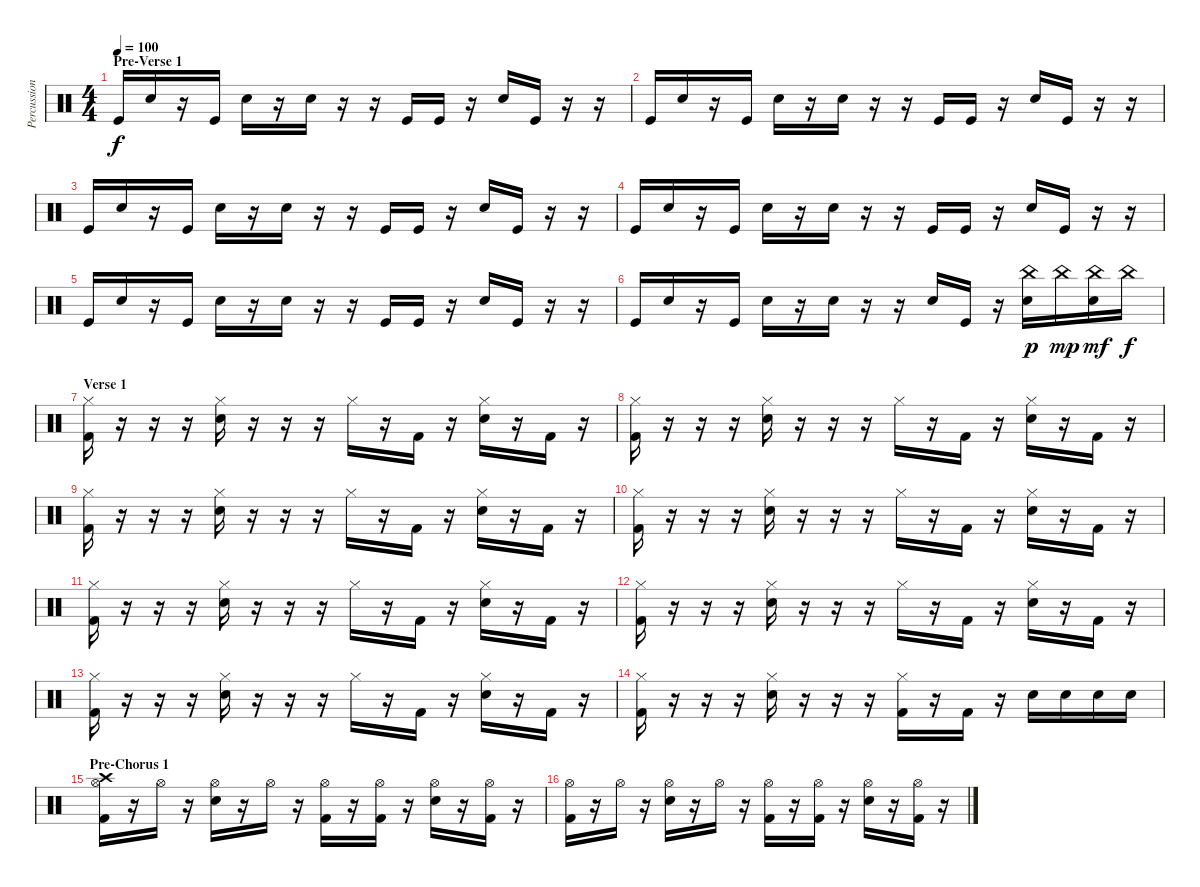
\track ("Percussion" "Percussion") {instrument percussion}
\staff {score}
\articulation defaults
\ts (4 4)
\section ("" "Pre-Verse 1")
\tempo 100
\clef neutral
\ks c "Kick (hit)".16{dy f} "Electric Snare (hit)".16
r.16 "Kick (hit)".16 "Electric Snare (hit)".16 r.16 "Electric Snare (hit)".16 r.16 r.16 "Kick (hit)".16 "Kick (hit)".16 r.16 "Electric Snare (hit)".16 "Kick (hit)".16 r.16 r.16 |
"Kick (hit)".16 "Electric Snare (hit)".16 r.16 "Kick (hit)".16 "Electric Snare (hit)".16 r.16 "Electric Snare (hit)".16 r.16 r.16 "Kick (hit)".16 "Kick (hit)".16 r.16 "Electric Snare (hit)".16 "Kick (hit)".16 r.16 r.16 |
"Kick (hit)".16 "Electric Snare (hit)".16 r.16 "Kick (hit)".16 "Electric Snare (hit)".16 r.16 "Electric Snare (hit)".16 r.16 r.16 "Kick (hit)".16 "Kick (hit)".16 r.16 "Electric Snare (hit)".16 "Kick (hit)".16 r.16 r.16 |
"Kick (hit)".16 "Electric Snare (hit)".16 r.16 "Kick (hit)".16 "Electric Snare (hit)".16 r.16 "Electric Snare (hit)".16 r.16 r.16 "Kick (hit)".16 "Kick (hit)".16 r.16 "Electric Snare (hit)".16 "Kick (hit)".16 r.16 r.16 |
"Kick (hit)".16 "Electric Snare (hit)".16 r.16 "Kick (hit)".16 "Electric Snare (hit)".16 r.16 "Electric Snare (hit)".16 r.16 r.16 "Kick (hit)".16 "Kick (hit)".16 r.16 "Electric Snare (hit)".16 "Kick (hit)".16 r.16 r.16 |
"Kick (hit)".16 "Electric Snare (hit)".16 r.16 "Kick (hit)".16 "Electric Snare (hit)".16 r.16 "Electric Snare (hit)".16 r.16 r.16 "Electric Snare (hit)".16 "Kick (hit)".16 r.16 ("Electric Snare (hit)" "China (hit)").16{dy p} "China (hit)".16{dy mp} ("Electric Snare (hit)" "China (hit)").16{dy mf} "China (hit)".16{dy f} |
\section ("" "Verse 1")
("Kick (hit) 2" "Hi-Hat (closed)").16 r.16 r.16 r.16 ("Snare (hit) 2" "Hi-Hat (closed)").16 r.16 r.16 r.16 "Hi-Hat (closed)".16 r.16 "Kick (hit) 2".16 r.16 ("Snare (hit) 2" "Hi-Hat (closed)").16 r.16 "Kick (hit) 2".16 r.16 |
("Kick (hit) 2" "Hi-Hat (closed)").16 r.16 r.16 r.16 ("Snare (hit) 2" "Hi-Hat (closed)").16 r.16 r.16 r.16 "Hi-Hat (closed)".16 r.16 "Kick (hit) 2".16 r.16 ("Snare (hit) 2" "Hi-Hat (closed)").16 r.16 "Kick (hit) 2".16 r.16 |
("Kick (hit) 2" "Hi-Hat (closed)").16 r.16 r.16 r.16 ("Snare (hit) 2" "Hi-Hat (closed)").16 r.16 r.16 r.16 "Hi-Hat (closed)".16 r.16 "Kick (hit) 2".16 r.16 ("Snare (hit) 2" "Hi-Hat (closed)").16 r.16 "Kick (hit) 2".16 r.16 |
("Kick (hit) 2" "Hi-Hat (closed)").16 r.16 r.16 r.16 ("Snare (hit) 2" "Hi-Hat (closed)").16 r.16 r.16 r.16 "Hi-Hat (closed)".16 r.16 "Kick (hit) 2".16 r.16 ("Snare (hit) 2" "Hi-Hat (closed)").16 r.16 "Kick (hit) 2".16 r.16 |
("Kick (hit) 2" "Hi-Hat (closed)").16 r.16 r.16 r.16 ("Snare (hit) 2" "Hi-Hat (closed)").16 r.16 r.16 r.16 "Hi-Hat (closed)".16 r.16 "Kick (hit) 2".16 r.16 ("Snare (hit) 2" "Hi-Hat (closed)").16 r.16 "Kick (hit) 2".16 r.16 |
("Kick (hit) 2" "Hi-Hat (closed)").16 r.16 r.16 r.16 ("Snare (hit) 2" "Hi-Hat (closed)").16 r.16 r.16 r.16 "Hi-Hat (closed)".16 r.16 "Kick (hit) 2".16 r.16 ("Snare (hit) 2" "Hi-Hat (closed)").16 r.16 "Kick (hit) 2".16 r.16 |
("Kick (hit) 2" "Hi-Hat (closed)").16 r.16 r.16 r.16 ("Snare (hit) 2" "Hi-Hat (closed)").16 r.16 r.16 r.16 "Hi-Hat (closed)".16 r.16 "Kick (hit) 2".16 r.16 ("Snare (hit) 2" "Hi-Hat (closed)").16 r.16 "Kick (hit) 2".16 r.16 |
("Kick (hit) 2" "Hi-Hat (closed)").16 r.16 r.16 r.16 ("Snare (hit) 2" "Hi-Hat (closed)").16 r.16 r.16 r.16 ("Kick (hit) 2" "Hi-Hat (closed)").16 r.16 "Kick (hit) 2".16 r.16 "Snare (hit) 2".16 "Snare (hit) 2".16 "Snare (hit) 2".16 "Snare (hit) 2".16 |
\section ("" "Pre-Chorus 1")
("Kick (hit) 2" "Hi-Hat (open)" "Crash high (hit)").16 r.16 "Hi-Hat (open)".16 r.16 ("Snare (hit) 2" "Hi-Hat (open)").16 r.16 "Hi-Hat (open)".16 r.16 ("Kick (hit) 2" "Hi-Hat (open)").16 r.16 ("Kick (hit) 2" "Hi-Hat (open)").16 r.16 ("Snare (hit) 2" "Hi-Hat (open)").16 r.16 ("Kick (hit) 2" "Hi-Hat (open)").16 r.16 |
("Kick (hit) 2" "Hi-Hat (open)").16 r.16 "Hi-Hat (open)".16 r.16 ("Snare (hit) 2" "Hi-Hat (open)").16 r.16 "Hi-Hat (open)".16 r.16 ("Kick (hit) 2" "Hi-Hat (open)").16 r.16 ("Kick (hit) 2" "Hi-Hat (open)").16 r.16 ("Snare (hit) 2" "Hi-Hat (open)").16 r.16 ("Kick (hit) 2" "Hi-Hat (open)").16 r.16
